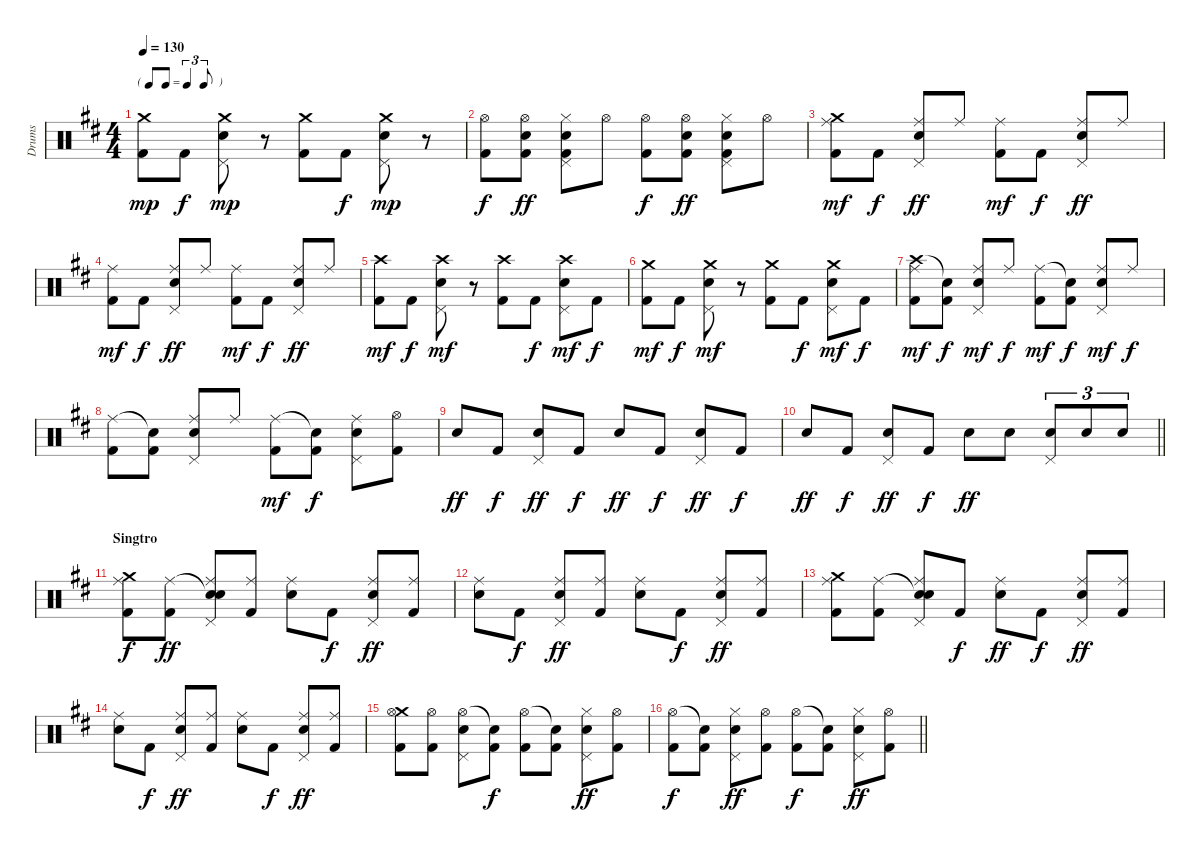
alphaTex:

\track ("Drums" "Drums") {instrument percussion}
\staff {score}
\articulation defaults
\ts (4 4)
\tf triplet8th
\tempo 130
\clef neutral
\ks d
("Crash medium (hit)" "Kick (hit) 2").8{dy mp} "Kick (hit) 2".8{dy f} ("Crash medium (hit)" "Pedal Hi-Hat (hit)" "Snare (hit) 2").8{dy mp} r.8 ("Crash medium (hit)" "Kick (hit) 2").8 "Kick (hit) 2".8{dy f} ("Crash medium (hit)" "Pedal Hi-Hat (hit)" "Snare (hit) 2").8{dy mp} r.8 |
("Hi-Hat (open)" "Kick (hit) 2").8{dy f} ("Hi-Hat (open)" "Snare (hit) 2" "Kick (hit) 2").8{dy ff} ("Hi-Hat (closed)" "Pedal Hi-Hat (hit)" "Snare (hit) 2" "Kick (hit) 2").8 "Hi-Hat (open)".8 ("Hi-Hat (open)" "Kick (hit) 2").8{dy f} ("Hi-Hat (open)" "Snare (hit) 2" "Kick (hit) 2").8{dy ff} ("Hi-Hat (closed)" "Pedal Hi-Hat (hit)" "Snare (hit) 2" "Kick (hit) 2").8 "Hi-Hat (open)".8 |
("Crash medium (hit)" "Ride (middle)" "Kick (hit) 2").8{dy mf} "Kick (hit) 2".8{dy f} ("Ride (middle)" "Pedal Hi-Hat (hit)" "Snare (hit) 2").8{dy ff} "Ride (middle)".8 ("Ride (middle)" "Kick (hit) 2").8{dy mf} "Kick (hit) 2".8{dy f} ("Ride (middle)" "Pedal Hi-Hat (hit)" "Snare (hit) 2").8{dy ff} "Ride (middle)".8 |
("Ride (middle)" "Kick (hit) 2").8{dy mf} "Kick (hit) 2".8{dy f} ("Ride (middle)" "Pedal Hi-Hat (hit)" "Snare (hit) 2").8{dy ff} "Ride (middle)".8 ("Ride (middle)" "Kick (hit) 2").8{dy mf} "Kick (hit) 2".8{dy f} ("Ride (middle)" "Pedal Hi-Hat (hit)" "Snare (hit) 2").8{dy ff} "Ride (middle)".8 |
("Crash high (hit)" "Kick (hit) 2").8{dy mf} "Kick (hit) 2".8{dy f} ("Crash high (hit)" "Pedal Hi-Hat (hit)" "Snare (hit) 2").8{dy mf} r.8 ("Crash high (hit)" "Kick (hit) 2").8 "Kick (hit) 2".8{dy f} ("Crash high (hit)" "Pedal Hi-Hat (hit)" "Snare (hit) 2").8{dy mf} "Kick (hit) 2".8{dy f} |
("Crash medium (hit)" "Kick (hit) 2").8{dy mf} "Kick (hit) 2".8{dy f} ("Crash medium (hit)" "Pedal Hi-Hat (hit)" "Snare (hit) 2").8{dy mf} r.8 ("Crash medium (hit)" "Kick (hit) 2").8 "Kick (hit) 2".8{dy f} ("Crash medium (hit)" "Pedal Hi-Hat (hit)" "Snare (hit) 2").8{dy mf} "Kick (hit) 2".8{dy f} |
("Crash high (hit)" "Ride (middle)" "Kick (hit) 2").8{dy mf} ("Snare (hit)"{t} "Kick (hit) 2").8{dy f} ("Ride (middle)" "Pedal Hi-Hat (hit)" "Snare (hit) 2").8{dy mf} "Ride (middle)".8{dy f} ("Ride (middle)" "Kick (hit) 2").8{dy mf} ("Snare (hit)"{t} "Kick (hit) 2").8{dy f} ("Ride (middle)" "Pedal Hi-Hat (hit)" "Snare (hit) 2").8{dy mf} "Ride (middle)".8{dy f} |
("Ride (middle)" "Kick (hit) 2").8 ("Snare (hit)"{t} "Kick (hit) 2").8 ("Ride (middle)" "Pedal Hi-Hat (hit)" "Snare (hit) 2").8 "Ride (middle)".8 ("Ride (middle)" "Kick (hit) 2").8{dy mf} ("Snare (hit)"{t} "Kick (hit) 2").8{dy f} ("Ride (middle)" "Pedal Hi-Hat (hit)" "Snare (hit) 2").8 ("Hi-Hat (open)" "Kick (hit) 2").8 |
"Snare (hit) 2".8{dy ff} "Kick (hit) 2".8{dy f} ("Pedal Hi-Hat (hit)" "Snare (hit) 2").8{dy ff} "Kick (hit) 2".8{dy f} "Snare (hit) 2".8{dy ff} "Kick (hit) 2".8{dy f} ("Pedal Hi-Hat (hit)" "Snare (hit) 2").8{dy ff} "Kick (hit) 2".8{dy f} |
\barLineRight lightlight "Snare (hit) 2".8{dy ff} "Kick (hit) 2".8{dy f}
("Pedal Hi-Hat (hit)" "Snare (hit) 2").8{dy ff} "Kick (hit) 2".8{dy f} "Snare (hit) 2".8{dy ff} "Snare (hit) 2".8 ("Pedal Hi-Hat (hit)" "Snare (hit) 2").8{tu (3 2)} "Snare (hit) 2".8{tu (3 2)} "Snare (hit) 2".8{tu (3 2)} |
\section ("" "Singtro")
("Crash medium (hit)" "Ride (middle)" "Kick (hit) 2").8{dy f} ("Ride (middle)" "Kick (hit) 2").8{dy ff} ("Snare (hit)"{t} "Ride (middle)" "Pedal Hi-Hat (hit)" "Snare (hit) 2").8 ("Ride (middle)" "Kick (hit) 2").8 ("Ride (middle)" "Snare (hit) 2").8 "Kick (hit) 2".8{dy f} ("Ride (middle)" "Pedal Hi-Hat (hit)" "Snare (hit) 2").8{dy ff} ("Ride (middle)" "Kick (hit) 2").8 |
("Ride (middle)" "Snare (hit) 2").8 "Kick (hit) 2".8{dy f} ("Ride (middle)" "Pedal Hi-Hat (hit)" "Snare (hit) 2").8{dy ff} ("Ride (middle)" "Kick (hit) 2").8 ("Ride (middle)" "Snare (hit) 2").8 "Kick (hit) 2".8{dy f} ("Ride (middle)" "Pedal Hi-Hat (hit)" "Snare (hit) 2").8{dy ff} ("Ride (middle)" "Kick (hit) 2").8 |
("Crash medium (hit)" "Ride (middle)" "Kick (hit) 2").8 ("Ride (middle)" "Kick (hit) 2").8 ("Snare (hit)"{t} "Ride (middle)" "Pedal Hi-Hat (hit)" "Snare (hit) 2").8 "Kick (hit) 2".8{dy f} ("Ride (middle)" "Snare (hit) 2").8{dy ff} "Kick (hit) 2".8{dy f} ("Ride (middle)" "Pedal Hi-Hat (hit)" "Snare (hit) 2").8{dy ff} ("Ride (middle)" "Kick (hit) 2").8 |
("Ride (middle)" "Snare (hit) 2").8 "Kick (hit) 2".8{dy f} ("Ride (middle)" "Pedal Hi-Hat (hit)" "Snare (hit) 2").8{dy ff} ("Ride (middle)" "Kick (hit) 2").8 ("Ride (middle)" "Snare (hit) 2").8 "Kick (hit) 2".8{dy f} ("Ride (middle)" "Pedal Hi-Hat (hit)" "Snare (hit) 2").8{dy ff} ("Ride (middle)" "Kick (hit) 2").8 |
("Crash medium (hit)" "Hi-Hat (open)" "Kick (hit) 2").8 ("Hi-Hat (open)" "Kick (hit) 2").8 ("Hi-Hat (open)" "Pedal Hi-Hat (hit)" "Snare (hit) 2").8 ("Snare (hit)"{t} "Kick (hit) 2").8{dy f} ("Hi-Hat (open)" "Kick (hit) 2").8 ("Snare (hit)"{t} "Kick (hit) 2").8 ("Hi-Hat (closed)" "Pedal Hi-Hat (hit)" "Snare (hit) 2").8{dy ff} ("Hi-Hat (open)" "Kick (hit) 2").8 |
\barLineRight lightlight
("Hi-Hat (open)" "Kick (hit) 2").8{dy f} ("Snare (hit)"{t} "Kick (hit) 2").8 ("Hi-Hat (closed)" "Pedal Hi-Hat (hit)" "Snare (hit) 2").8{dy ff} ("Hi-Hat (open)" "Kick (hit) 2").8 ("Hi-Hat (open)" "Kick (hit) 2").8{dy f} ("Snare (hit)"{t} "Kick (hit) 2").8 ("Hi-Hat (closed)" "Pedal Hi-Hat (hit)" "Snare (hit) 2").8{dy ff} ("Hi-Hat (open)" "Kick (hit) 2").8
